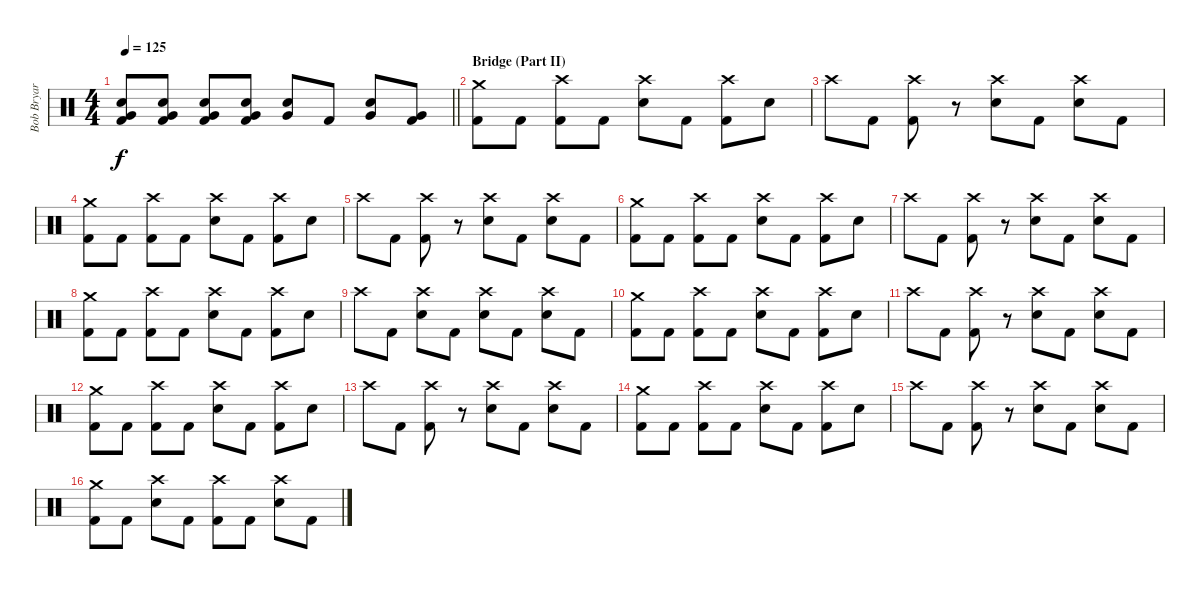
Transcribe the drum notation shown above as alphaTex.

\track ("Bob Bryar" "Bob Bryar") {instrument percussion}
\staff {score}
\articulation defaults
\ts (4 4)
\tempo 125
\clef neutral
\barLineRight lightlight
\ks c
("Electric Snare (hit)" "Very Low Tom (hit)" "Kick (hit) 2").8{dy f} ("Electric Snare (hit)" "Very Low Tom (hit)" "Kick (hit) 2").8 ("Electric Snare (hit)" "Very Low Tom (hit)" "Kick (hit) 2").8 ("Electric Snare (hit)" "Very Low Tom (hit)" "Kick (hit) 2").8 ("Electric Snare (hit)" "Very Low Tom (hit)").8 "Kick (hit) 2".8 ("Electric Snare (hit)" "Very Low Tom (hit)").8 ("Very Low Tom (hit)" "Kick (hit) 2").8 |
\section ("" "Bridge (Part II)")
("Crash medium (hit)" "Kick (hit) 2").8 "Kick (hit) 2".8 ("Crash high (hit)" "Kick (hit) 2").8 "Kick (hit) 2".8 ("Crash high (hit)" "Electric Snare (hit)").8 "Kick (hit) 2".8 ("Crash high (hit)" "Kick (hit) 2").8 "Electric Snare (hit)".8 |
"Crash high (hit)".8 "Kick (hit) 2".8 ("Crash high (hit)" "Kick (hit) 2").8 r.8 ("Crash high (hit)" "Electric Snare (hit)").8 "Kick (hit) 2".8 ("Crash high (hit)" "Electric Snare (hit)").8 "Kick (hit) 2".8 |
("Crash medium (hit)" "Kick (hit) 2").8 "Kick (hit) 2".8 ("Crash high (hit)" "Kick (hit) 2").8 "Kick (hit) 2".8 ("Crash high (hit)" "Electric Snare (hit)").8 "Kick (hit) 2".8 ("Crash high (hit)" "Kick (hit) 2").8 "Electric Snare (hit)".8 |
"Crash high (hit)".8 "Kick (hit) 2".8 ("Crash high (hit)" "Kick (hit) 2").8 r.8 ("Crash high (hit)" "Electric Snare (hit)").8 "Kick (hit) 2".8 ("Crash high (hit)" "Electric Snare (hit)").8 "Kick (hit) 2".8 |
("Crash medium (hit)" "Kick (hit) 2").8 "Kick (hit) 2".8 ("Crash high (hit)" "Kick (hit) 2").8 "Kick (hit) 2".8 ("Crash high (hit)" "Electric Snare (hit)").8 "Kick (hit) 2".8 ("Crash high (hit)" "Kick (hit) 2").8 "Electric Snare (hit)".8 |
"Crash high (hit)".8 "Kick (hit) 2".8 ("Crash high (hit)" "Kick (hit) 2").8 r.8 ("Crash high (hit)" "Electric Snare (hit)").8 "Kick (hit) 2".8 ("Crash high (hit)" "Electric Snare (hit)").8 "Kick (hit) 2".8 |
("Crash medium (hit)" "Kick (hit) 2").8 "Kick (hit) 2".8 ("Crash high (hit)" "Kick (hit) 2").8 "Kick (hit) 2".8 ("Crash high (hit)" "Electric Snare (hit)").8 "Kick (hit) 2".8 ("Crash high (hit)" "Kick (hit) 2").8 "Electric Snare (hit)".8 |
"Crash high (hit)".8 "Kick (hit) 2".8 ("Crash high (hit)" "Electric Snare (hit)").8 "Kick (hit) 2".8 ("Crash high (hit)" "Electric Snare (hit)").8 "Kick (hit) 2".8 ("Crash high (hit)" "Electric Snare (hit)").8 "Kick (hit) 2".8 |
("Crash medium (hit)" "Kick (hit) 2").8 "Kick (hit) 2".8 ("Crash high (hit)" "Kick (hit) 2").8 "Kick (hit) 2".8 ("Crash high (hit)" "Electric Snare (hit)").8 "Kick (hit) 2".8 ("Crash high (hit)" "Kick (hit) 2").8 "Electric Snare (hit)".8 |
"Crash high (hit)".8 "Kick (hit) 2".8 ("Crash high (hit)" "Kick (hit) 2").8 r.8 ("Crash high (hit)" "Electric Snare (hit)").8 "Kick (hit) 2".8 ("Crash high (hit)" "Electric Snare (hit)").8 "Kick (hit) 2".8 |
("Crash medium (hit)" "Kick (hit) 2").8 "Kick (hit) 2".8 ("Crash high (hit)" "Kick (hit) 2").8 "Kick (hit) 2".8 ("Crash high (hit)" "Electric Snare (hit)").8 "Kick (hit) 2".8 ("Crash high (hit)" "Kick (hit) 2").8 "Electric Snare (hit)".8 |
"Crash high (hit)".8 "Kick (hit) 2".8 ("Crash high (hit)" "Kick (hit) 2").8 r.8 ("Crash high (hit)" "Electric Snare (hit)").8 "Kick (hit) 2".8 ("Crash high (hit)" "Electric Snare (hit)").8 "Kick (hit) 2".8 |
("Crash medium (hit)" "Kick (hit) 2").8 "Kick (hit) 2".8 ("Crash high (hit)" "Kick (hit) 2").8 "Kick (hit) 2".8 ("Crash high (hit)" "Electric Snare (hit)").8 "Kick (hit) 2".8 ("Crash high (hit)" "Kick (hit) 2").8 "Electric Snare (hit)".8 |
"Crash high (hit)".8 "Kick (hit) 2".8 ("Crash high (hit)" "Kick (hit) 2").8 r.8 ("Crash high (hit)" "Electric Snare (hit)").8 "Kick (hit) 2".8 ("Crash high (hit)" "Electric Snare (hit)").8 "Kick (hit) 2".8 |
("Crash medium (hit)" "Kick (hit) 2").8 "Kick (hit) 2".8 ("Crash high (hit)" "Electric Snare (hit)").8 "Kick (hit) 2".8 ("Crash high (hit)" "Kick (hit) 2").8 "Kick (hit) 2".8 ("Crash high (hit)" "Electric Snare (hit)").8 "Kick (hit) 2".8
